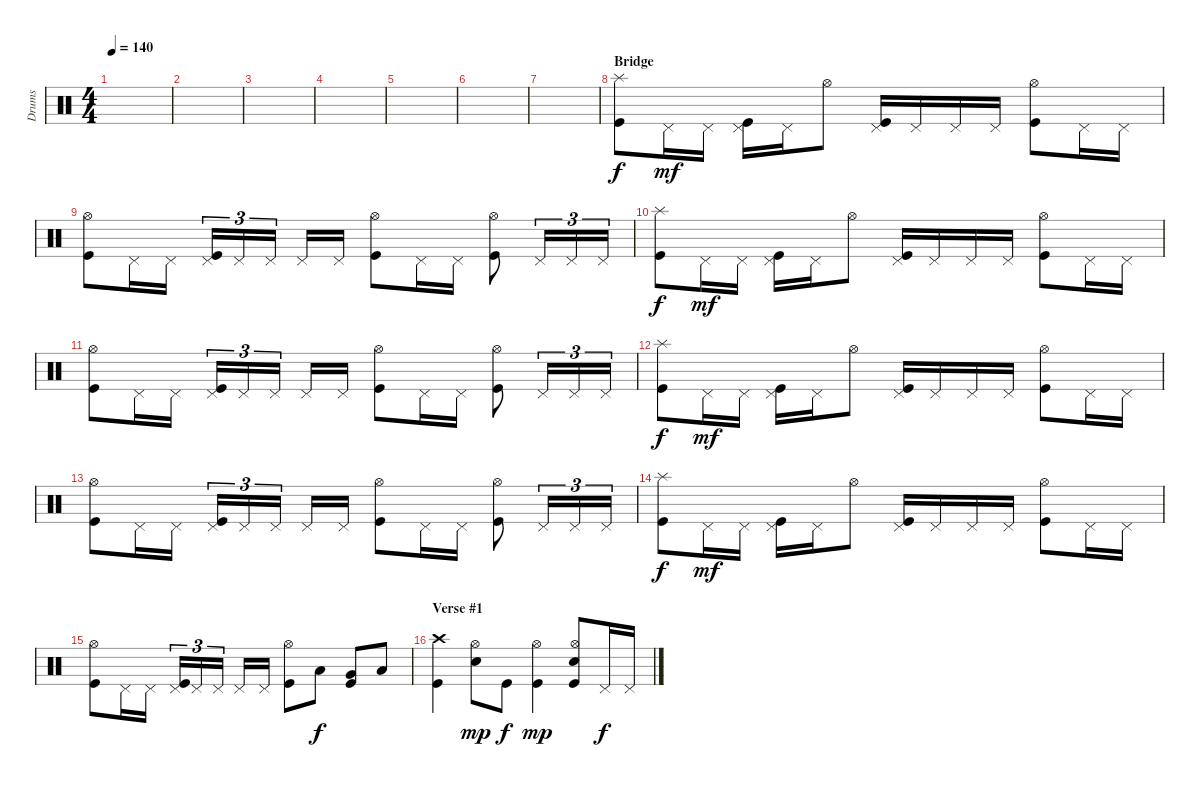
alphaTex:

\track ("Drums" "Drums") {instrument percussion}
\staff {score}
\articulation defaults
\ts (4 4)
\tempo 140
\clef neutral
\ks c
|
|
|
|
|
|
|
\section ("" "Bridge")
("Splash (hit)" "Kick (hit)").8{dy f} "Pedal Hi-Hat (hit)".16{dy mf} "Pedal Hi-Hat (hit)".16 ("Pedal Hi-Hat (hit)" "Kick (hit)").16 "Pedal Hi-Hat (hit)".16 "Hi-Hat (open)".8 ("Pedal Hi-Hat (hit)" "Kick (hit)").16 "Pedal Hi-Hat (hit)".16 "Pedal Hi-Hat (hit)".16 "Pedal Hi-Hat (hit)".16 ("Hi-Hat (open)" "Kick (hit)").8 "Pedal Hi-Hat (hit)".16 "Pedal Hi-Hat (hit)".16 |
("Hi-Hat (open)" "Kick (hit)").8 "Pedal Hi-Hat (hit)".16 "Pedal Hi-Hat (hit)".16 ("Pedal Hi-Hat (hit)" "Kick (hit)").16{tu (3 2)} "Pedal Hi-Hat (hit)".16{tu (3 2)} "Pedal Hi-Hat (hit)".16{tu (3 2)} "Pedal Hi-Hat (hit)".16 "Pedal Hi-Hat (hit)".16 ("Hi-Hat (open)" "Kick (hit)").8 "Pedal Hi-Hat (hit)".16 "Pedal Hi-Hat (hit)".16 ("Hi-Hat (open)" "Kick (hit)").8 "Pedal Hi-Hat (hit)".16{tu (3 2)} "Pedal Hi-Hat (hit)".16{tu (3 2)} "Pedal Hi-Hat (hit)".16{tu (3 2)} |
("Splash (hit)" "Kick (hit)").8{dy f} "Pedal Hi-Hat (hit)".16{dy mf} "Pedal Hi-Hat (hit)".16 ("Pedal Hi-Hat (hit)" "Kick (hit)").16 "Pedal Hi-Hat (hit)".16 "Hi-Hat (open)".8 ("Pedal Hi-Hat (hit)" "Kick (hit)").16 "Pedal Hi-Hat (hit)".16 "Pedal Hi-Hat (hit)".16 "Pedal Hi-Hat (hit)".16 ("Hi-Hat (open)" "Kick (hit)").8 "Pedal Hi-Hat (hit)".16 "Pedal Hi-Hat (hit)".16 |
("Hi-Hat (open)" "Kick (hit)").8 "Pedal Hi-Hat (hit)".16 "Pedal Hi-Hat (hit)".16 ("Pedal Hi-Hat (hit)" "Kick (hit)").16{tu (3 2)} "Pedal Hi-Hat (hit)".16{tu (3 2)} "Pedal Hi-Hat (hit)".16{tu (3 2)} "Pedal Hi-Hat (hit)".16 "Pedal Hi-Hat (hit)".16 ("Hi-Hat (open)" "Kick (hit)").8 "Pedal Hi-Hat (hit)".16 "Pedal Hi-Hat (hit)".16 ("Hi-Hat (open)" "Kick (hit)").8 "Pedal Hi-Hat (hit)".16{tu (3 2)} "Pedal Hi-Hat (hit)".16{tu (3 2)} "Pedal Hi-Hat (hit)".16{tu (3 2)} |
("Splash (hit)" "Kick (hit)").8{dy f} "Pedal Hi-Hat (hit)".16{dy mf} "Pedal Hi-Hat (hit)".16 ("Pedal Hi-Hat (hit)" "Kick (hit)").16 "Pedal Hi-Hat (hit)".16 "Hi-Hat (open)".8 ("Pedal Hi-Hat (hit)" "Kick (hit)").16 "Pedal Hi-Hat (hit)".16 "Pedal Hi-Hat (hit)".16 "Pedal Hi-Hat (hit)".16 ("Hi-Hat (open)" "Kick (hit)").8 "Pedal Hi-Hat (hit)".16 "Pedal Hi-Hat (hit)".16 |
("Hi-Hat (open)" "Kick (hit)").8 "Pedal Hi-Hat (hit)".16 "Pedal Hi-Hat (hit)".16 ("Pedal Hi-Hat (hit)" "Kick (hit)").16{tu (3 2)} "Pedal Hi-Hat (hit)".16{tu (3 2)} "Pedal Hi-Hat (hit)".16{tu (3 2)} "Pedal Hi-Hat (hit)".16 "Pedal Hi-Hat (hit)".16 ("Hi-Hat (open)" "Kick (hit)").8 "Pedal Hi-Hat (hit)".16 "Pedal Hi-Hat (hit)".16 ("Hi-Hat (open)" "Kick (hit)").8 "Pedal Hi-Hat (hit)".16{tu (3 2)} "Pedal Hi-Hat (hit)".16{tu (3 2)} "Pedal Hi-Hat (hit)".16{tu (3 2)} |
("Splash (hit)" "Kick (hit)").8{dy f} "Pedal Hi-Hat (hit)".16{dy mf} "Pedal Hi-Hat (hit)".16 ("Pedal Hi-Hat (hit)" "Kick (hit)").16 "Pedal Hi-Hat (hit)".16 "Hi-Hat (open)".8 ("Pedal Hi-Hat (hit)" "Kick (hit)").16 "Pedal Hi-Hat (hit)".16 "Pedal Hi-Hat (hit)".16 "Pedal Hi-Hat (hit)".16 ("Hi-Hat (open)" "Kick (hit)").8 "Pedal Hi-Hat (hit)".16 "Pedal Hi-Hat (hit)".16 |
("Hi-Hat (open)" "Kick (hit)").8 "Pedal Hi-Hat (hit)".16 "Pedal Hi-Hat (hit)".16 ("Pedal Hi-Hat (hit)" "Kick (hit)").16{tu (3 2)} "Pedal Hi-Hat (hit)".16{tu (3 2)} "Pedal Hi-Hat (hit)".16{tu (3 2)} "Pedal Hi-Hat (hit)".16 "Pedal Hi-Hat (hit)".16 ("Hi-Hat (open)" "Kick (hit)").8 "Low Tom (hit)".8{dy f} ("Very Low Tom (hit)" "Kick (hit)").8 "Low Floor Tom (hit)".8 |
\section ("" "Verse #1")
("Crash high (hit)" "Kick (hit)").4 ("Hi-Hat (open)" "Electric Snare (hit)").8{dy mp} "Kick (hit)".8{dy f} ("Hi-Hat (open)" "Kick (hit)").4{dy mp} ("Hi-Hat (open)" "Electric Snare (hit)" "Kick (hit)").8 "Pedal Hi-Hat (hit)".16{dy f} "Pedal Hi-Hat (hit)".16
